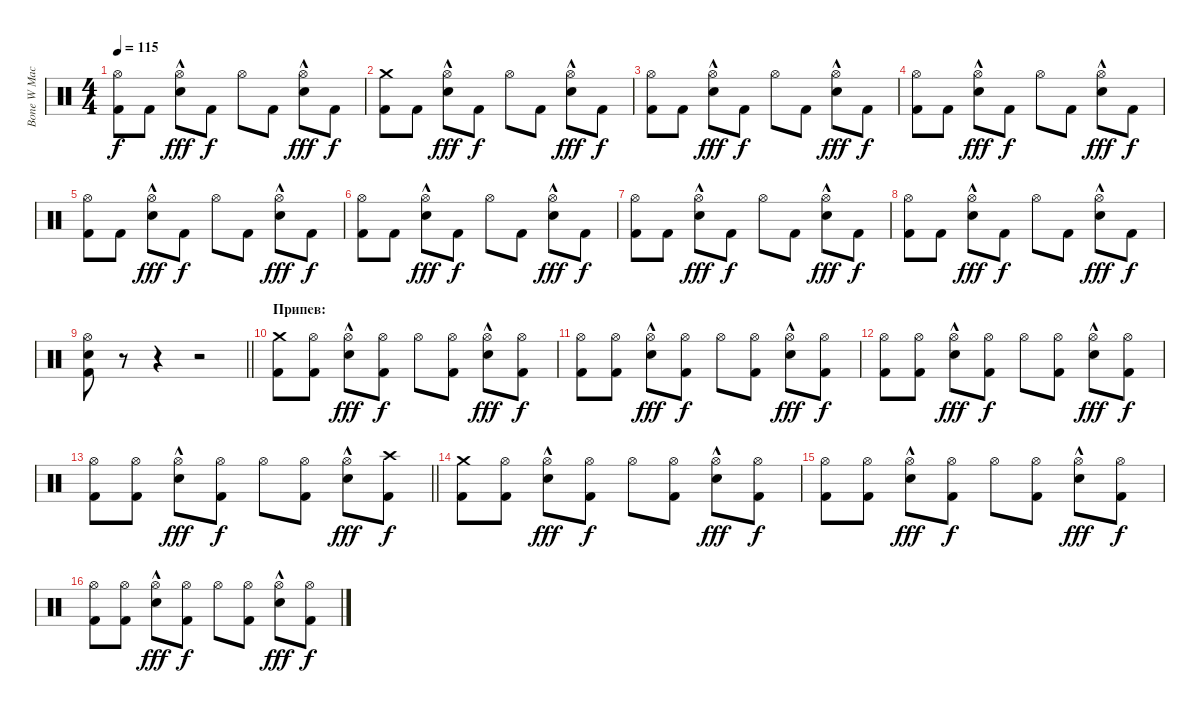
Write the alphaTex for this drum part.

\track ("Bone W Machine" "Bone W Mac") {instrument percussion}
\staff {score}
\articulation defaults
\ts (4 4)
\tempo 115
\clef neutral
\ks c
("Hi-Hat (open)" "Kick (hit) 2").8{dy f} "Kick (hit) 2".8 ("Hi-Hat (open)" "Electric Snare (hit)"{hac}).8{dy fff} "Kick (hit) 2".8{dy f} "Hi-Hat (open)".8 "Kick (hit) 2".8 ("Hi-Hat (open)" "Electric Snare (hit)"{hac}).8{dy fff} "Kick (hit) 2".8{dy f} |
("Crash medium (hit)" "Kick (hit) 2").8 "Kick (hit) 2".8 ("Hi-Hat (open)" "Electric Snare (hit)"{hac}).8{dy fff} "Kick (hit) 2".8{dy f} "Hi-Hat (open)".8 "Kick (hit) 2".8 ("Hi-Hat (open)" "Electric Snare (hit)"{hac}).8{dy fff} "Kick (hit) 2".8{dy f} |
("Hi-Hat (open)" "Kick (hit) 2").8 "Kick (hit) 2".8 ("Hi-Hat (open)" "Electric Snare (hit)"{hac}).8{dy fff} "Kick (hit) 2".8{dy f} "Hi-Hat (open)".8 "Kick (hit) 2".8 ("Hi-Hat (open)" "Electric Snare (hit)"{hac}).8{dy fff} "Kick (hit) 2".8{dy f} |
("Hi-Hat (open)" "Kick (hit) 2").8 "Kick (hit) 2".8 ("Hi-Hat (open)" "Electric Snare (hit)"{hac}).8{dy fff} "Kick (hit) 2".8{dy f} "Hi-Hat (open)".8 "Kick (hit) 2".8 ("Hi-Hat (open)" "Electric Snare (hit)"{hac}).8{dy fff} "Kick (hit) 2".8{dy f} |
("Hi-Hat (open)" "Kick (hit) 2").8 "Kick (hit) 2".8 ("Hi-Hat (open)" "Electric Snare (hit)"{hac}).8{dy fff} "Kick (hit) 2".8{dy f} "Hi-Hat (open)".8 "Kick (hit) 2".8 ("Hi-Hat (open)" "Electric Snare (hit)"{hac}).8{dy fff} "Kick (hit) 2".8{dy f} |
("Hi-Hat (open)" "Kick (hit) 2").8 "Kick (hit) 2".8 ("Hi-Hat (open)" "Electric Snare (hit)"{hac}).8{dy fff} "Kick (hit) 2".8{dy f} "Hi-Hat (open)".8 "Kick (hit) 2".8 ("Hi-Hat (open)" "Electric Snare (hit)"{hac}).8{dy fff} "Kick (hit) 2".8{dy f} |
("Hi-Hat (open)" "Kick (hit) 2").8 "Kick (hit) 2".8 ("Hi-Hat (open)" "Electric Snare (hit)"{hac}).8{dy fff} "Kick (hit) 2".8{dy f} "Hi-Hat (open)".8 "Kick (hit) 2".8 ("Hi-Hat (open)" "Electric Snare (hit)"{hac}).8{dy fff} "Kick (hit) 2".8{dy f} |
("Hi-Hat (open)" "Kick (hit) 2").8 "Kick (hit) 2".8 ("Hi-Hat (open)" "Electric Snare (hit)"{hac}).8{dy fff} "Kick (hit) 2".8{dy f} "Hi-Hat (open)".8 "Kick (hit) 2".8 ("Hi-Hat (open)" "Electric Snare (hit)"{hac}).8{dy fff} "Kick (hit) 2".8{dy f} |
\barLineRight lightlight
("Hi-Hat (open)" "Electric Snare (hit)" "Kick (hit) 2").8 r.8 r.4 r.2 |
\section ("" "Припев:")
("Crash medium (hit)" "Kick (hit) 2").8 ("Hi-Hat (open)" "Kick (hit) 2").8 ("Hi-Hat (open)" "Electric Snare (hit)"{hac}).8{dy fff} ("Hi-Hat (open)" "Kick (hit) 2").8{dy f} "Hi-Hat (open)".8 ("Hi-Hat (open)" "Kick (hit) 2").8 ("Hi-Hat (open)" "Electric Snare (hit)"{hac}).8{dy fff} ("Hi-Hat (open)" "Kick (hit) 2").8{dy f} |
("Hi-Hat (open)" "Kick (hit) 2").8 ("Hi-Hat (open)" "Kick (hit) 2").8 ("Hi-Hat (open)" "Electric Snare (hit)"{hac}).8{dy fff} ("Hi-Hat (open)" "Kick (hit) 2").8{dy f} "Hi-Hat (open)".8 ("Hi-Hat (open)" "Kick (hit) 2").8 ("Hi-Hat (open)" "Electric Snare (hit)"{hac}).8{dy fff} ("Hi-Hat (open)" "Kick (hit) 2").8{dy f} |
("Hi-Hat (open)" "Kick (hit) 2").8 ("Hi-Hat (open)" "Kick (hit) 2").8 ("Hi-Hat (open)" "Electric Snare (hit)"{hac}).8{dy fff} ("Hi-Hat (open)" "Kick (hit) 2").8{dy f} "Hi-Hat (open)".8 ("Hi-Hat (open)" "Kick (hit) 2").8 ("Hi-Hat (open)" "Electric Snare (hit)"{hac}).8{dy fff} ("Hi-Hat (open)" "Kick (hit) 2").8{dy f} |
\barLineRight lightlight
("Hi-Hat (open)" "Kick (hit) 2").8 ("Hi-Hat (open)" "Kick (hit) 2").8 ("Hi-Hat (open)" "Electric Snare (hit)"{hac}).8{dy fff} ("Hi-Hat (open)" "Kick (hit) 2").8{dy f} "Hi-Hat (open)".8 ("Hi-Hat (open)" "Kick (hit) 2").8 ("Hi-Hat (open)" "Electric Snare (hit)"{hac}).8{dy fff} ("Crash high (hit)" "Kick (hit) 2").8{dy f} |
("Crash medium (hit)" "Kick (hit) 2").8 ("Hi-Hat (open)" "Kick (hit) 2").8 ("Hi-Hat (open)" "Electric Snare (hit)"{hac}).8{dy fff} ("Hi-Hat (open)" "Kick (hit) 2").8{dy f} "Hi-Hat (open)".8 ("Hi-Hat (open)" "Kick (hit) 2").8 ("Hi-Hat (open)" "Electric Snare (hit)"{hac}).8{dy fff} ("Hi-Hat (open)" "Kick (hit) 2").8{dy f} |
("Hi-Hat (open)" "Kick (hit) 2").8 ("Hi-Hat (open)" "Kick (hit) 2").8 ("Hi-Hat (open)" "Electric Snare (hit)"{hac}).8{dy fff} ("Hi-Hat (open)" "Kick (hit) 2").8{dy f} "Hi-Hat (open)".8 ("Hi-Hat (open)" "Kick (hit) 2").8 ("Hi-Hat (open)" "Electric Snare (hit)"{hac}).8{dy fff} ("Hi-Hat (open)" "Kick (hit) 2").8{dy f} |
("Hi-Hat (open)" "Kick (hit) 2").8 ("Hi-Hat (open)" "Kick (hit) 2").8 ("Hi-Hat (open)" "Electric Snare (hit)"{hac}).8{dy fff} ("Hi-Hat (open)" "Kick (hit) 2").8{dy f} "Hi-Hat (open)".8 ("Hi-Hat (open)" "Kick (hit) 2").8 ("Hi-Hat (open)" "Electric Snare (hit)"{hac}).8{dy fff} ("Hi-Hat (open)" "Kick (hit) 2").8{dy f}
